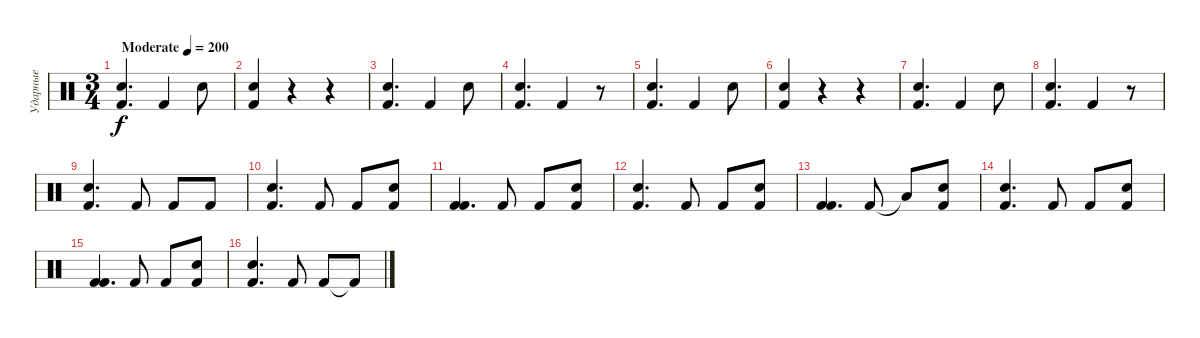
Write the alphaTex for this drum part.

\track ("Ударные" "Ударные") {instrument percussion}
\staff {score}
\articulation defaults
\ts (3 4)
\tempo (200 "Moderate")
\clef neutral
\ks c
("Snare (hit) 2" "Kick (hit) 2").4{d dy f} "Kick (hit) 2".4 "Snare (hit) 2".8 |
("Snare (hit) 2" "Kick (hit) 2").4 r.4 r.4 |
("Snare (hit) 2" "Kick (hit) 2").4{d} "Kick (hit) 2".4 "Snare (hit) 2".8 |
("Snare (hit) 2" "Kick (hit) 2").4{d} "Kick (hit) 2".4 r.8 |
("Snare (hit) 2" "Kick (hit) 2").4{d} "Kick (hit) 2".4 "Snare (hit) 2".8 |
("Snare (hit) 2" "Kick (hit) 2").4 r.4 r.4 |
("Snare (hit) 2" "Kick (hit) 2").4{d} "Kick (hit) 2".4 "Snare (hit) 2".8 |
("Snare (hit) 2" "Kick (hit) 2").4{d} "Kick (hit) 2".4 r.8 |
("Snare (hit) 2" "Kick (hit) 2").4{d} "Kick (hit) 2".8 "Kick (hit) 2".8 "Kick (hit) 2".8 |
("Snare (hit) 2" "Kick (hit) 2").4{d} "Kick (hit) 2".8 "Kick (hit) 2".8 ("Snare (hit) 2" "Kick (hit) 2").8 |
("Kick (hit) 2" "Kick (hit) 2").4{d} "Kick (hit) 2".8 "Kick (hit) 2".8 ("Snare (hit) 2" "Kick (hit) 2").8 |
("Snare (hit) 2" "Kick (hit) 2").4{d} "Kick (hit) 2".8 "Kick (hit) 2".8 ("Snare (hit) 2" "Kick (hit) 2").8 |
("Kick (hit) 2" "Kick (hit) 2").4{d} "Kick (hit) 2".8 "Low Floor Tom (hit)"{t}.8 ("Snare (hit) 2" "Kick (hit) 2").8 |
("Snare (hit) 2" "Kick (hit) 2").4{d} "Kick (hit) 2".8 "Kick (hit) 2".8 ("Snare (hit) 2" "Kick (hit) 2").8 |
("Kick (hit) 2" "Kick (hit) 2").4{d} "Kick (hit) 2".8 "Kick (hit) 2".8 ("Snare (hit) 2" "Kick (hit) 2").8 |
("Snare (hit) 2" "Kick (hit) 2").4{d} "Kick (hit) 2".8 "Kick (hit) 2".8 "Kick (hit) 2"{t}.8
